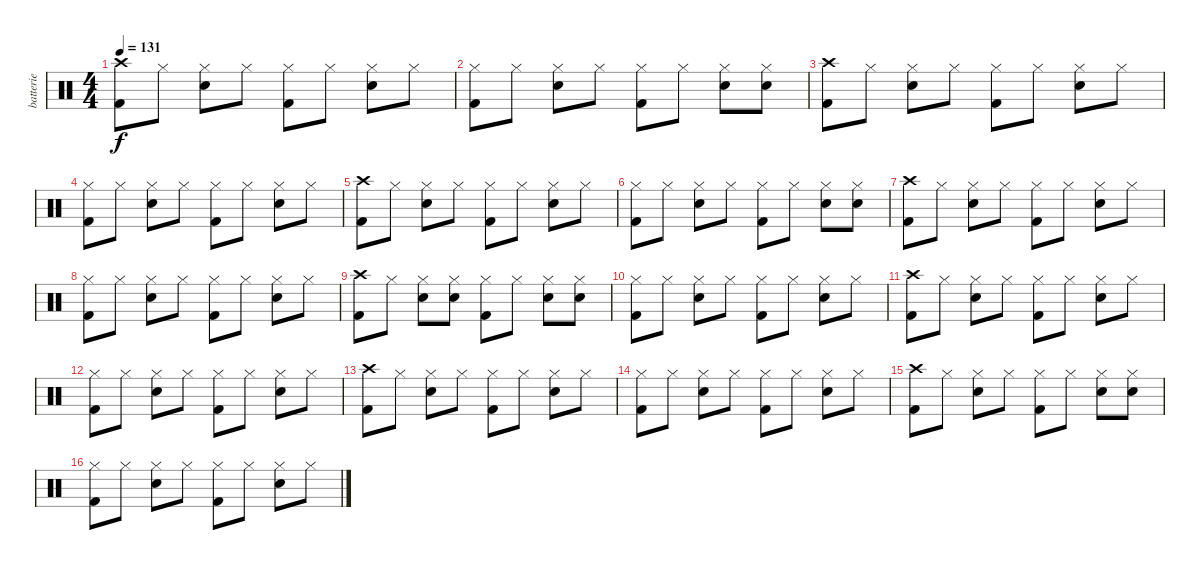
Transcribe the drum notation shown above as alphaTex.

\track ("batterie" "batterie") {instrument percussion}
\staff {score}
\articulation defaults
\ts (4 4)
\tempo 131
\clef neutral
\ks c
("Crash high (hit)" "Kick (hit) 2").8{dy f} "Hi-Hat (closed)".8 ("Hi-Hat (closed)" "Electric Snare (hit)").8 "Hi-Hat (closed)".8 ("Hi-Hat (closed)" "Kick (hit) 2").8 "Hi-Hat (closed)".8 ("Hi-Hat (closed)" "Electric Snare (hit)").8 "Hi-Hat (closed)".8 |
("Hi-Hat (closed)" "Kick (hit) 2").8 "Hi-Hat (closed)".8 ("Hi-Hat (closed)" "Electric Snare (hit)").8 "Hi-Hat (closed)".8 ("Hi-Hat (closed)" "Kick (hit) 2").8 "Hi-Hat (closed)".8 ("Hi-Hat (closed)" "Electric Snare (hit)").8 ("Hi-Hat (closed)" "Electric Snare (hit)").8 |
("Crash high (hit)" "Kick (hit) 2").8 "Hi-Hat (closed)".8 ("Hi-Hat (closed)" "Electric Snare (hit)").8 "Hi-Hat (closed)".8 ("Hi-Hat (closed)" "Kick (hit) 2").8 "Hi-Hat (closed)".8 ("Hi-Hat (closed)" "Electric Snare (hit)").8 "Hi-Hat (closed)".8 |
("Hi-Hat (closed)" "Kick (hit) 2").8 "Hi-Hat (closed)".8 ("Hi-Hat (closed)" "Electric Snare (hit)").8 "Hi-Hat (closed)".8 ("Hi-Hat (closed)" "Kick (hit) 2").8 "Hi-Hat (closed)".8 ("Hi-Hat (closed)" "Electric Snare (hit)").8 "Hi-Hat (closed)".8 |
("Crash high (hit)" "Kick (hit) 2").8 "Hi-Hat (closed)".8 ("Hi-Hat (closed)" "Electric Snare (hit)").8 "Hi-Hat (closed)".8 ("Hi-Hat (closed)" "Kick (hit) 2").8 "Hi-Hat (closed)".8 ("Hi-Hat (closed)" "Electric Snare (hit)").8 "Hi-Hat (closed)".8 |
("Hi-Hat (closed)" "Kick (hit) 2").8 "Hi-Hat (closed)".8 ("Hi-Hat (closed)" "Electric Snare (hit)").8 "Hi-Hat (closed)".8 ("Hi-Hat (closed)" "Kick (hit) 2").8 "Hi-Hat (closed)".8 ("Hi-Hat (closed)" "Electric Snare (hit)").8 ("Hi-Hat (closed)" "Electric Snare (hit)").8 |
("Crash high (hit)" "Kick (hit) 2").8 "Hi-Hat (closed)".8 ("Hi-Hat (closed)" "Electric Snare (hit)").8 "Hi-Hat (closed)".8 ("Hi-Hat (closed)" "Kick (hit) 2").8 "Hi-Hat (closed)".8 ("Hi-Hat (closed)" "Electric Snare (hit)").8 "Hi-Hat (closed)".8 |
("Hi-Hat (closed)" "Kick (hit) 2").8 "Hi-Hat (closed)".8 ("Hi-Hat (closed)" "Electric Snare (hit)").8 "Hi-Hat (closed)".8 ("Hi-Hat (closed)" "Kick (hit) 2").8 "Hi-Hat (closed)".8 ("Hi-Hat (closed)" "Electric Snare (hit)").8 "Hi-Hat (closed)".8 |
("Crash high (hit)" "Kick (hit) 2").8 "Hi-Hat (closed)".8 ("Hi-Hat (closed)" "Electric Snare (hit)").8 ("Hi-Hat (closed)" "Electric Snare (hit)").8 ("Hi-Hat (closed)" "Kick (hit) 2").8 "Hi-Hat (closed)".8 ("Hi-Hat (closed)" "Electric Snare (hit)").8 ("Hi-Hat (closed)" "Electric Snare (hit)").8 |
("Hi-Hat (closed)" "Kick (hit) 2").8 "Hi-Hat (closed)".8 ("Hi-Hat (closed)" "Electric Snare (hit)").8 "Hi-Hat (closed)".8 ("Hi-Hat (closed)" "Kick (hit) 2").8 "Hi-Hat (closed)".8 ("Hi-Hat (closed)" "Electric Snare (hit)").8 "Hi-Hat (closed)".8 |
("Crash high (hit)" "Kick (hit) 2").8 "Hi-Hat (closed)".8 ("Hi-Hat (closed)" "Electric Snare (hit)").8 "Hi-Hat (closed)".8 ("Hi-Hat (closed)" "Kick (hit) 2").8 "Hi-Hat (closed)".8 ("Hi-Hat (closed)" "Electric Snare (hit)").8 "Hi-Hat (closed)".8 |
("Hi-Hat (closed)" "Kick (hit) 2").8 "Hi-Hat (closed)".8 ("Hi-Hat (closed)" "Electric Snare (hit)").8 "Hi-Hat (closed)".8 ("Hi-Hat (closed)" "Kick (hit) 2").8 "Hi-Hat (closed)".8 ("Hi-Hat (closed)" "Electric Snare (hit)").8 "Hi-Hat (closed)".8 |
("Crash high (hit)" "Kick (hit) 2").8 "Hi-Hat (closed)".8 ("Hi-Hat (closed)" "Electric Snare (hit)").8 "Hi-Hat (closed)".8 ("Hi-Hat (closed)" "Kick (hit) 2").8 "Hi-Hat (closed)".8 ("Hi-Hat (closed)" "Electric Snare (hit)").8 "Hi-Hat (closed)".8 |
("Hi-Hat (closed)" "Kick (hit) 2").8 "Hi-Hat (closed)".8 ("Hi-Hat (closed)" "Electric Snare (hit)").8 "Hi-Hat (closed)".8 ("Hi-Hat (closed)" "Kick (hit) 2").8 "Hi-Hat (closed)".8 ("Hi-Hat (closed)" "Electric Snare (hit)").8 "Hi-Hat (closed)".8 |
("Crash high (hit)" "Kick (hit) 2").8 "Hi-Hat (closed)".8 ("Hi-Hat (closed)" "Electric Snare (hit)").8 "Hi-Hat (closed)".8 ("Hi-Hat (closed)" "Kick (hit) 2").8 "Hi-Hat (closed)".8 ("Hi-Hat (closed)" "Electric Snare (hit)").8 ("Hi-Hat (closed)" "Electric Snare (hit)").8 |
("Hi-Hat (closed)" "Kick (hit) 2").8 "Hi-Hat (closed)".8 ("Hi-Hat (closed)" "Electric Snare (hit)").8 "Hi-Hat (closed)".8 ("Hi-Hat (closed)" "Kick (hit) 2").8 "Hi-Hat (closed)".8 ("Hi-Hat (closed)" "Electric Snare (hit)").8 "Hi-Hat (closed)".8
